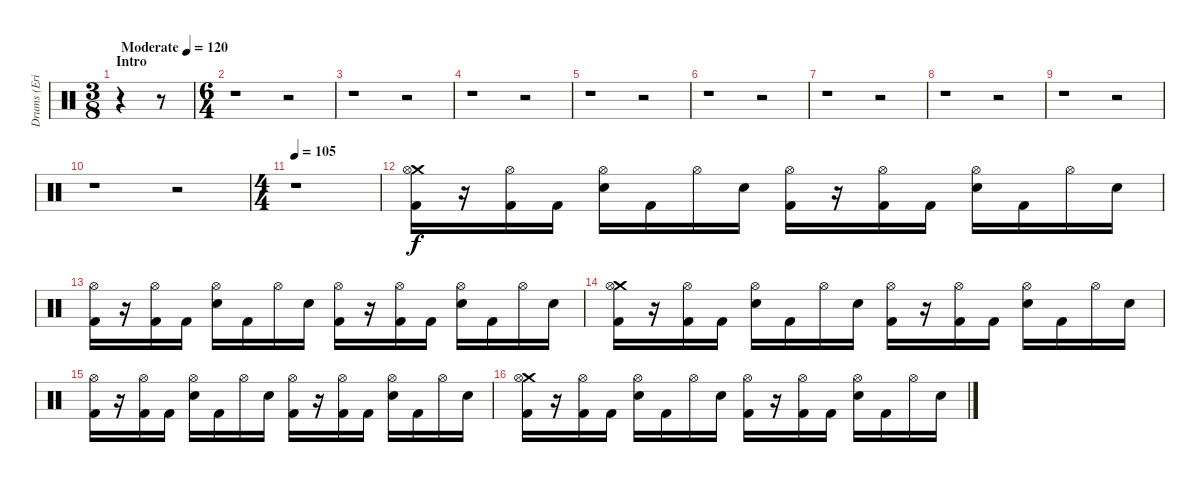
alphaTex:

\track ("Drums (Eric Kretz)" "Drums (Eri") {instrument percussion}
\staff {score}
\articulation defaults
\ts (3 8)
\section ("" "Intro")
\tempo (120 "Moderate")
\clef neutral
\ks c
r.4{dy f} r.8 |
\ts (6 4)
r.1 r.2 |
r.1 r.2 |
r.1 r.2 |
r.1 r.2 |
r.1 r.2 |
r.1 r.2 |
r.1 r.2 |
r.1 r.2 |
r.1 r.2 |
\ts (4 4)
\tempo 105
r.1 |
("Crash medium (hit)" "Hi-Hat (open)" "Kick (hit) 2").16 r.16 ("Hi-Hat (open)" "Kick (hit) 2").16 "Kick (hit) 2".16 ("Hi-Hat (open)" "Electric Snare (hit)").16 "Kick (hit) 2".16 "Hi-Hat (open)".16 "Electric Snare (hit)".16 ("Hi-Hat (open)" "Kick (hit) 2").16 r.16 ("Hi-Hat (open)" "Kick (hit) 2").16 "Kick (hit) 2".16 ("Hi-Hat (open)" "Electric Snare (hit)").16 "Kick (hit) 2".16 "Hi-Hat (open)".16 "Electric Snare (hit)".16 |
("Hi-Hat (open)" "Kick (hit) 2").16 r.16 ("Hi-Hat (open)" "Kick (hit) 2").16 "Kick (hit) 2".16 ("Hi-Hat (open)" "Electric Snare (hit)").16 "Kick (hit) 2".16 "Hi-Hat (open)".16 "Electric Snare (hit)".16 ("Hi-Hat (open)" "Kick (hit) 2").16 r.16 ("Hi-Hat (open)" "Kick (hit) 2").16 "Kick (hit) 2".16 ("Hi-Hat (open)" "Electric Snare (hit)").16 "Kick (hit) 2".16 "Hi-Hat (open)".16 "Electric Snare (hit)".16 |
("Crash medium (hit)" "Hi-Hat (open)" "Kick (hit) 2").16 r.16 ("Hi-Hat (open)" "Kick (hit) 2").16 "Kick (hit) 2".16 ("Hi-Hat (open)" "Electric Snare (hit)").16 "Kick (hit) 2".16 "Hi-Hat (open)".16 "Electric Snare (hit)".16 ("Hi-Hat (open)" "Kick (hit) 2").16 r.16 ("Hi-Hat (open)" "Kick (hit) 2").16 "Kick (hit) 2".16 ("Hi-Hat (open)" "Electric Snare (hit)").16 "Kick (hit) 2".16 "Hi-Hat (open)".16 "Electric Snare (hit)".16 |
("Hi-Hat (open)" "Kick (hit) 2").16 r.16 ("Hi-Hat (open)" "Kick (hit) 2").16 "Kick (hit) 2".16 ("Hi-Hat (open)" "Electric Snare (hit)").16 "Kick (hit) 2".16 "Hi-Hat (open)".16 "Electric Snare (hit)".16 ("Hi-Hat (open)" "Kick (hit) 2").16 r.16 ("Hi-Hat (open)" "Kick (hit) 2").16 "Kick (hit) 2".16 ("Hi-Hat (open)" "Electric Snare (hit)").16 "Kick (hit) 2".16 "Hi-Hat (open)".16 "Electric Snare (hit)".16 |
("Crash medium (hit)" "Hi-Hat (open)" "Kick (hit) 2").16 r.16 ("Hi-Hat (open)" "Kick (hit) 2").16 "Kick (hit) 2".16 ("Hi-Hat (open)" "Electric Snare (hit)").16 "Kick (hit) 2".16 "Hi-Hat (open)".16 "Electric Snare (hit)".16 ("Hi-Hat (open)" "Kick (hit) 2").16 r.16 ("Hi-Hat (open)" "Kick (hit) 2").16 "Kick (hit) 2".16 ("Hi-Hat (open)" "Electric Snare (hit)").16 "Kick (hit) 2".16 "Hi-Hat (open)".16 "Electric Snare (hit)".16
